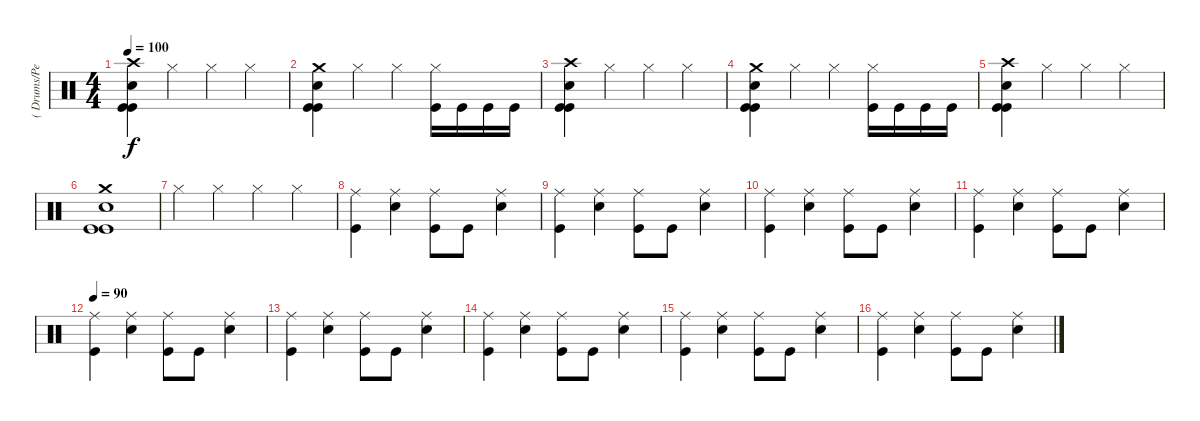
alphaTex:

\track ("( Drums/Percussion )" "( Drums/Pe") {instrument percussion}
\staff {score}
\articulation defaults
\ts (4 4)
\tempo 100
\clef neutral
\ks c
("Crash high (hit)" "Kick (hit)" "Snare (hit) 2" "Kick (hit)").4{dy f} "Hi-Hat (closed)".4 "Hi-Hat (closed)".4 "Hi-Hat (closed)".4 |
("Crash medium (hit)" "Kick (hit)" "Snare (hit) 2" "Kick (hit)").4 "Hi-Hat (closed)".4 "Hi-Hat (closed)".4 ("Hi-Hat (closed)" "Kick (hit)").16 "Kick (hit)".16 "Kick (hit)".16 "Kick (hit)".16 |
("Crash high (hit)" "Kick (hit)" "Snare (hit) 2" "Kick (hit)").4 "Hi-Hat (closed)".4 "Hi-Hat (closed)".4 "Hi-Hat (closed)".4 |
("Crash medium (hit)" "Kick (hit)" "Snare (hit) 2" "Kick (hit)").4 "Hi-Hat (closed)".4 "Hi-Hat (closed)".4 ("Hi-Hat (closed)" "Kick (hit)").16 "Kick (hit)".16 "Kick (hit)".16 "Kick (hit)".16 |
("Crash high (hit)" "Kick (hit)" "Snare (hit) 2" "Kick (hit)").4 "Hi-Hat (closed)".4 "Hi-Hat (closed)".4 "Hi-Hat (closed)".4 |
("Crash medium (hit)" "Kick (hit)" "Snare (hit) 2" "Kick (hit)").1 |
"Hi-Hat (closed)".4 "Hi-Hat (closed)".4 "Hi-Hat (closed)".4 "Hi-Hat (closed)".4 |
("Ride (middle)" "Kick (hit)").4 ("Ride (middle)" "Snare (hit) 2").4 ("Ride (middle)" "Kick (hit)").8 "Kick (hit)".8 ("Ride (middle)" "Snare (hit) 2").4 |
("Ride (middle)" "Kick (hit)").4 ("Ride (middle)" "Snare (hit) 2").4 ("Ride (middle)" "Kick (hit)").8 "Kick (hit)".8 ("Ride (middle)" "Snare (hit) 2").4 |
("Ride (middle)" "Kick (hit)").4 ("Ride (middle)" "Snare (hit) 2").4 ("Ride (middle)" "Kick (hit)").8 "Kick (hit)".8 ("Ride (middle)" "Snare (hit) 2").4 |
("Ride (middle)" "Kick (hit)").4 ("Ride (middle)" "Snare (hit) 2").4 ("Ride (middle)" "Kick (hit)").8 "Kick (hit)".8 ("Ride (middle)" "Snare (hit) 2").4 |
\tempo 90
("Ride (middle)" "Kick (hit)").4 ("Ride (middle)" "Snare (hit) 2").4 ("Ride (middle)" "Kick (hit)").8 "Kick (hit)".8 ("Ride (middle)" "Snare (hit) 2").4 |
("Ride (middle)" "Kick (hit)").4 ("Ride (middle)" "Snare (hit) 2").4 ("Ride (middle)" "Kick (hit)").8 "Kick (hit)".8 ("Ride (middle)" "Snare (hit) 2").4 |
("Ride (middle)" "Kick (hit)").4 ("Ride (middle)" "Snare (hit) 2").4 ("Ride (middle)" "Kick (hit)").8 "Kick (hit)".8 ("Ride (middle)" "Snare (hit) 2").4 |
("Ride (middle)" "Kick (hit)").4 ("Ride (middle)" "Snare (hit) 2").4 ("Ride (middle)" "Kick (hit)").8 "Kick (hit)".8 ("Ride (middle)" "Snare (hit) 2").4 |
("Ride (middle)" "Kick (hit)").4 ("Ride (middle)" "Snare (hit) 2").4 ("Ride (middle)" "Kick (hit)").8 "Kick (hit)".8 ("Ride (middle)" "Snare (hit) 2").4
